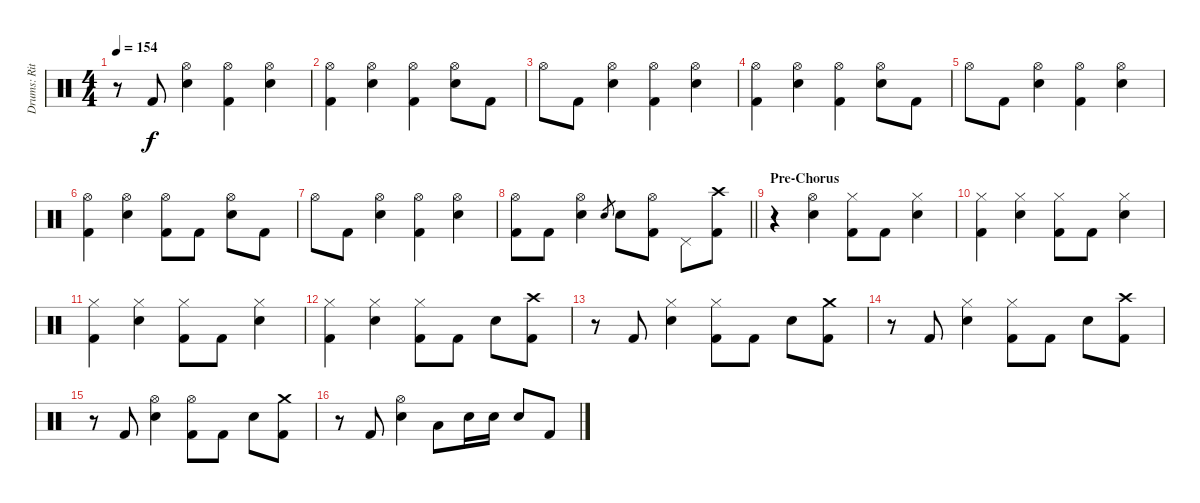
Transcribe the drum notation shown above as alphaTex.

\track ("Drums: Ritsu Tainaka" "Drums: Rit") {instrument percussion}
\staff {score}
\articulation defaults
\ts (4 4)
\tempo 154
\clef neutral
\ks c
r.8{dy f} "Kick (hit) 2".8 ("Hi-Hat (open)" "Electric Snare (hit)").4 ("Hi-Hat (open)" "Kick (hit) 2").4 ("Hi-Hat (open)" "Electric Snare (hit)").4 |
("Hi-Hat (open)" "Kick (hit) 2").4 ("Hi-Hat (open)" "Electric Snare (hit)").4 ("Hi-Hat (open)" "Kick (hit) 2").4 ("Hi-Hat (open)" "Electric Snare (hit)").8 "Kick (hit) 2".8 |
"Hi-Hat (open)".8 "Kick (hit) 2".8 ("Hi-Hat (open)" "Electric Snare (hit)").4 ("Hi-Hat (open)" "Kick (hit) 2").4 ("Hi-Hat (open)" "Electric Snare (hit)").4 |
("Hi-Hat (open)" "Kick (hit) 2").4 ("Hi-Hat (open)" "Electric Snare (hit)").4 ("Hi-Hat (open)" "Kick (hit) 2").4 ("Hi-Hat (open)" "Electric Snare (hit)").8 "Kick (hit) 2".8 |
"Hi-Hat (open)".8 "Kick (hit) 2".8 ("Hi-Hat (open)" "Electric Snare (hit)").4 ("Hi-Hat (open)" "Kick (hit) 2").4 ("Hi-Hat (open)" "Electric Snare (hit)").4 |
("Hi-Hat (open)" "Kick (hit) 2").4 ("Hi-Hat (open)" "Electric Snare (hit)").4 ("Hi-Hat (open)" "Kick (hit) 2").8 "Kick (hit) 2".8 ("Hi-Hat (open)" "Electric Snare (hit)").8 "Kick (hit) 2".8 |
"Hi-Hat (open)".8 "Kick (hit) 2".8 ("Hi-Hat (open)" "Electric Snare (hit)").4 ("Hi-Hat (open)" "Kick (hit) 2").4 ("Hi-Hat (open)" "Electric Snare (hit)").4 |
\barLineRight lightlight
("Hi-Hat (open)" "Kick (hit) 2").8 "Kick (hit) 2".8 ("Hi-Hat (open)" "Electric Snare (hit)").4 "Electric Snare (hit)".8{gr} "Electric Snare (hit)".8 ("Hi-Hat (open)" "Kick (hit) 2").8 "Pedal Hi-Hat (hit)".8 ("Crash high (hit)" "Kick (hit) 2").8 |
\section ("" "Pre-Chorus")
r.4 ("Hi-Hat (open)" "Electric Snare (hit)").4 ("Hi-Hat (closed)" "Kick (hit) 2").8 "Kick (hit) 2".8 ("Hi-Hat (closed)" "Electric Snare (hit)").4 |
("Hi-Hat (closed)" "Kick (hit) 2").4 ("Hi-Hat (closed)" "Electric Snare (hit)").4 ("Hi-Hat (closed)" "Kick (hit) 2").8 "Kick (hit) 2".8 ("Hi-Hat (closed)" "Electric Snare (hit)").4 |
("Hi-Hat (closed)" "Kick (hit) 2").4 ("Hi-Hat (closed)" "Electric Snare (hit)").4 ("Hi-Hat (closed)" "Kick (hit) 2").8 "Kick (hit) 2".8 ("Hi-Hat (closed)" "Electric Snare (hit)").4 |
("Hi-Hat (closed)" "Kick (hit) 2").4 ("Hi-Hat (closed)" "Electric Snare (hit)").4 ("Hi-Hat (closed)" "Kick (hit) 2").8 "Kick (hit) 2".8 "Electric Snare (hit)".8 ("Crash high (hit)" "Kick (hit) 2").8 |
r.8 "Kick (hit) 2".8 ("Hi-Hat (closed)" "Electric Snare (hit)").4 ("Hi-Hat (closed)" "Kick (hit) 2").8 "Kick (hit) 2".8 "Electric Snare (hit)".8 ("Crash medium (hit)" "Kick (hit) 2").8 |
r.8 "Kick (hit) 2".8 ("Hi-Hat (closed)" "Electric Snare (hit)").4 ("Hi-Hat (closed)" "Kick (hit) 2").8 "Kick (hit) 2".8 "Electric Snare (hit)".8 ("Crash high (hit)" "Kick (hit) 2").8 |
r.8 "Kick (hit) 2".8 ("Hi-Hat (open)" "Electric Snare (hit)").4 ("Hi-Hat (open)" "Kick (hit) 2").8 "Kick (hit) 2".8 "Electric Snare (hit)".8 ("Crash medium (hit)" "Kick (hit) 2").8 |
r.8 "Kick (hit) 2".8 ("Hi-Hat (open)" "Electric Snare (hit)").4 "Low Tom (hit)".8 "Electric Snare (hit)".16 "Electric Snare (hit)".16 "Electric Snare (hit)".8 "Kick (hit) 2".8
